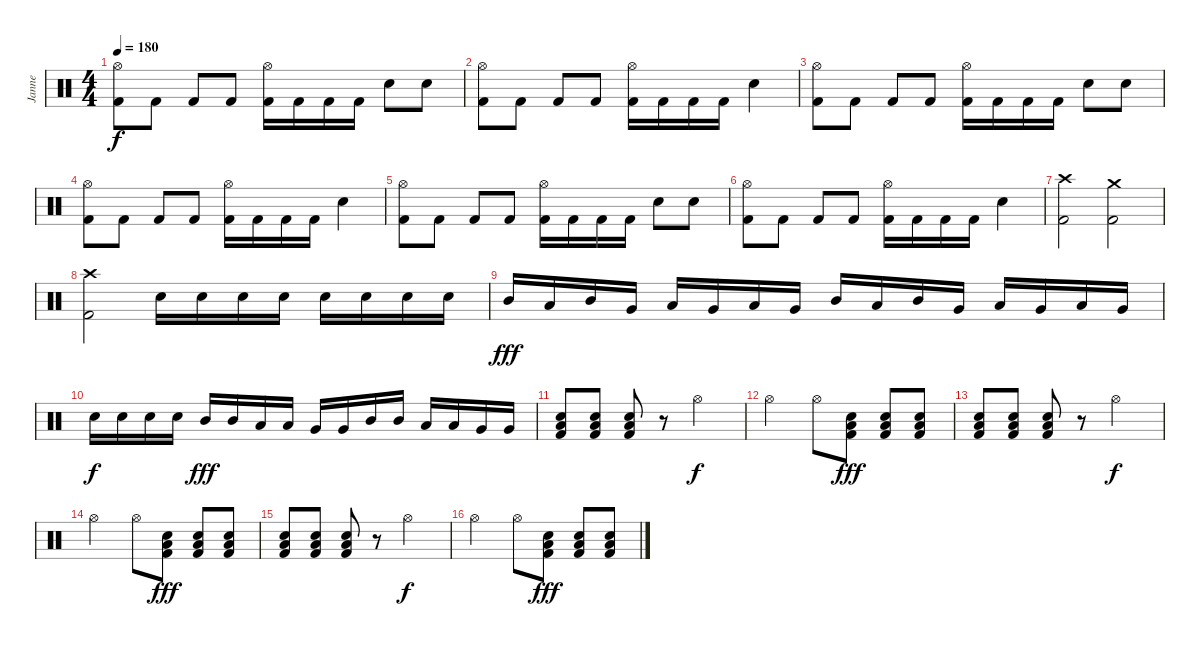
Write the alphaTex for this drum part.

\track ("Janne" "Janne") {instrument percussion}
\staff {score}
\articulation defaults
\ts (4 4)
\tempo 180
\clef neutral
\ks c
("Hi-Hat (open)" "Kick (hit) 2").8{dy f} "Kick (hit) 2".8 "Kick (hit) 2".8 "Kick (hit) 2".8 ("Hi-Hat (open)" "Kick (hit) 2").16 "Kick (hit) 2".16 "Kick (hit) 2".16 "Kick (hit) 2".16 "Electric Snare (hit)".8 "Electric Snare (hit)".8 |
("Hi-Hat (open)" "Kick (hit) 2").8 "Kick (hit) 2".8 "Kick (hit) 2".8 "Kick (hit) 2".8 ("Hi-Hat (open)" "Kick (hit) 2").16 "Kick (hit) 2".16 "Kick (hit) 2".16 "Kick (hit) 2".16 "Electric Snare (hit)".4 |
("Hi-Hat (open)" "Kick (hit) 2").8 "Kick (hit) 2".8 "Kick (hit) 2".8 "Kick (hit) 2".8 ("Hi-Hat (open)" "Kick (hit) 2").16 "Kick (hit) 2".16 "Kick (hit) 2".16 "Kick (hit) 2".16 "Electric Snare (hit)".8 "Electric Snare (hit)".8 |
("Hi-Hat (open)" "Kick (hit) 2").8 "Kick (hit) 2".8 "Kick (hit) 2".8 "Kick (hit) 2".8 ("Hi-Hat (open)" "Kick (hit) 2").16 "Kick (hit) 2".16 "Kick (hit) 2".16 "Kick (hit) 2".16 "Electric Snare (hit)".4 |
("Hi-Hat (open)" "Kick (hit) 2").8 "Kick (hit) 2".8 "Kick (hit) 2".8 "Kick (hit) 2".8 ("Hi-Hat (open)" "Kick (hit) 2").16 "Kick (hit) 2".16 "Kick (hit) 2".16 "Kick (hit) 2".16 "Electric Snare (hit)".8 "Electric Snare (hit)".8 |
("Hi-Hat (open)" "Kick (hit) 2").8 "Kick (hit) 2".8 "Kick (hit) 2".8 "Kick (hit) 2".8 ("Hi-Hat (open)" "Kick (hit) 2").16 "Kick (hit) 2".16 "Kick (hit) 2".16 "Kick (hit) 2".16 "Electric Snare (hit)".4 |
("Crash high (hit)" "Kick (hit) 2").2 ("Crash medium (hit)" "Kick (hit) 2").2 |
("Crash high (hit)" "Kick (hit) 2").2 "Electric Snare (hit)".16 "Electric Snare (hit)".16 "Electric Snare (hit)".16 "Electric Snare (hit)".16 "Electric Snare (hit)".16 "Electric Snare (hit)".16 "Electric Snare (hit)".16 "Electric Snare (hit)".16 |
"Mid Tom (hit)".16{dy fff} "Low Tom (hit)".16 "Mid Tom (hit)".16 "Very Low Tom (hit)".16 "Low Tom (hit)".16 "Very Low Tom (hit)".16 "Low Tom (hit)".16 "Very Low Tom (hit)".16 "Mid Tom (hit)".16 "Low Tom (hit)".16 "Mid Tom (hit)".16 "Very Low Tom (hit)".16 "Low Tom (hit)".16 "Very Low Tom (hit)".16 "Low Tom (hit)".16 "Very Low Tom (hit)".16 |
"Electric Snare (hit)".16{dy f} "Electric Snare (hit)".16 "Electric Snare (hit)".16 "Electric Snare (hit)".16 "Mid Tom (hit)".16{dy fff} "Mid Tom (hit)".16 "Low Tom (hit)".16 "Low Tom (hit)".16 "Very Low Tom (hit)".16 "Very Low Tom (hit)".16 "Mid Tom (hit)".16 "Mid Tom (hit)".16 "Low Tom (hit)".16 "Low Tom (hit)".16 "Very Low Tom (hit)".16 "Very Low Tom (hit)".16 |
("Low Floor Tom (hit)" "Electric Snare (hit)" "Kick (hit) 2").8 ("Low Floor Tom (hit)" "Electric Snare (hit)" "Kick (hit) 2").8 ("Low Floor Tom (hit)" "Electric Snare (hit)" "Kick (hit) 2").8 r.8 "Hi-Hat (open)".2{dy f} |
"Hi-Hat (open)".2 "Hi-Hat (open)".8 ("Low Floor Tom (hit)" "Electric Snare (hit)" "Kick (hit) 2").8{dy fff} ("Low Floor Tom (hit)" "Electric Snare (hit)" "Kick (hit) 2").8 ("Low Floor Tom (hit)" "Electric Snare (hit)" "Kick (hit) 2").8 |
("Low Floor Tom (hit)" "Electric Snare (hit)" "Kick (hit) 2").8 ("Low Floor Tom (hit)" "Electric Snare (hit)" "Kick (hit) 2").8 ("Low Floor Tom (hit)" "Electric Snare (hit)" "Kick (hit) 2").8 r.8 "Hi-Hat (open)".2{dy f} |
"Hi-Hat (open)".2 "Hi-Hat (open)".8 ("Low Floor Tom (hit)" "Electric Snare (hit)" "Kick (hit) 2").8{dy fff} ("Low Floor Tom (hit)" "Electric Snare (hit)" "Kick (hit) 2").8 ("Low Floor Tom (hit)" "Electric Snare (hit)" "Kick (hit) 2").8 |
("Low Floor Tom (hit)" "Electric Snare (hit)" "Kick (hit) 2").8 ("Low Floor Tom (hit)" "Electric Snare (hit)" "Kick (hit) 2").8 ("Low Floor Tom (hit)" "Electric Snare (hit)" "Kick (hit) 2").8 r.8 "Hi-Hat (open)".2{dy f} |
"Hi-Hat (open)".2 "Hi-Hat (open)".8 ("Low Floor Tom (hit)" "Electric Snare (hit)" "Kick (hit) 2").8{dy fff} ("Low Floor Tom (hit)" "Electric Snare (hit)" "Kick (hit) 2").8 ("Low Floor Tom (hit)" "Electric Snare (hit)" "Kick (hit) 2").8
